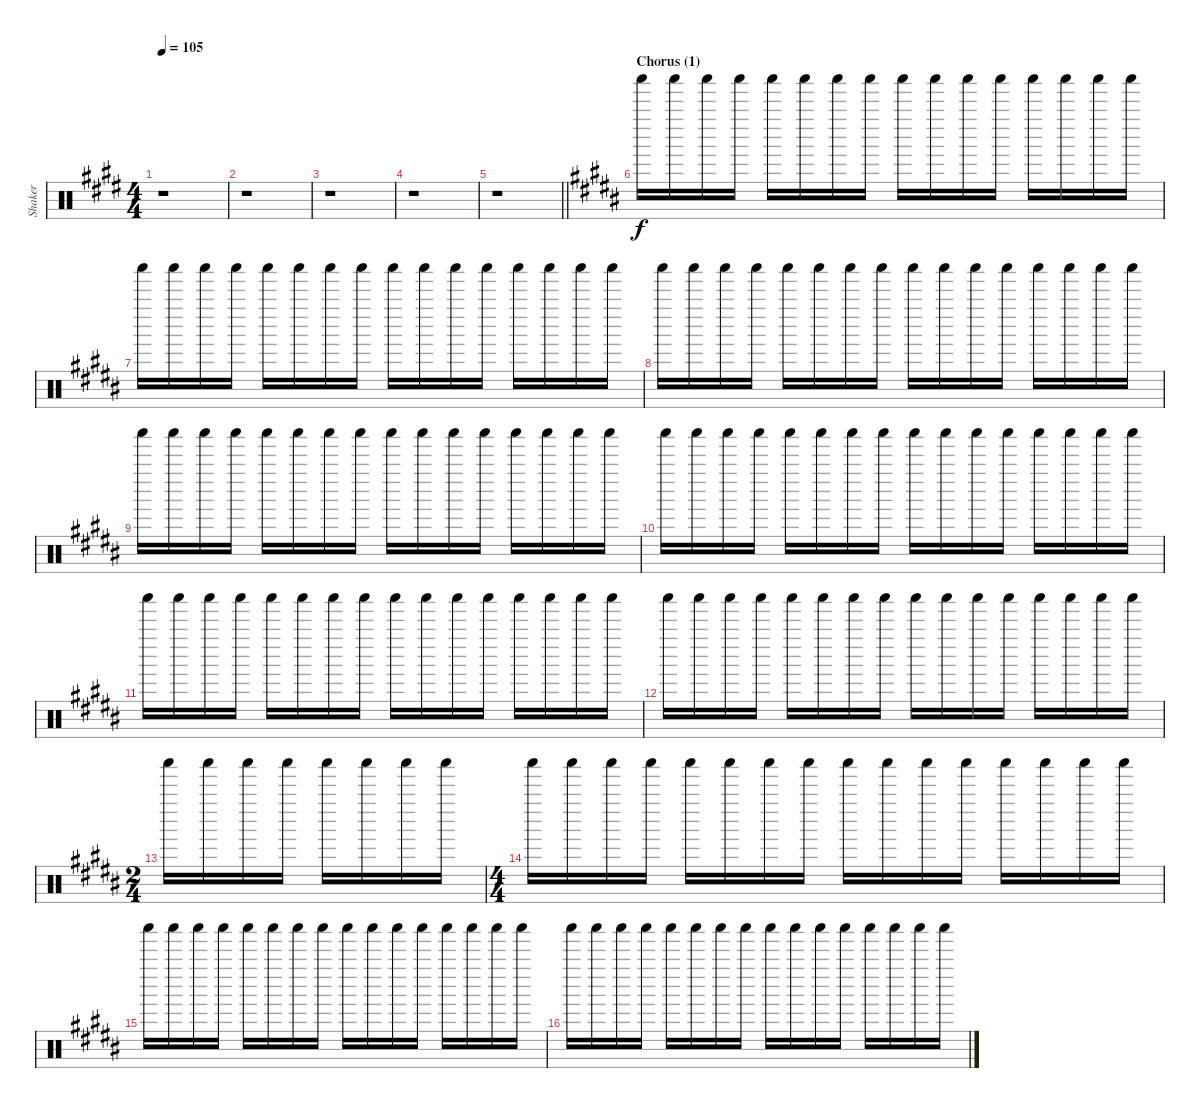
\track ("Shaker" "Shaker") {instrument percussion}
\staff {score}
\articulation defaults
\ts (4 4)
\tempo 105
\clef neutral
\ks e
r.1{dy f} |
r.1 |
r.1 |
r.1 |
\barLineRight lightlight
r.1 |
\section ("" "Chorus (1)")
\ks g#minor "Shaker (hit)".16 "Shaker (hit)".16 "Shaker (hit)".16 "Shaker (hit)".16 "Shaker (hit)".16 "Shaker (hit)".16 "Shaker (hit)".16 "Shaker (hit)".16 "Shaker (hit)".16 "Shaker (hit)".16 "Shaker (hit)".16 "Shaker (hit)".16 "Shaker (hit)".16 "Shaker (hit)".16 "Shaker (hit)".16 "Shaker (hit)".16
|
"Shaker (hit)".16 "Shaker (hit)".16 "Shaker (hit)".16 "Shaker (hit)".16 "Shaker (hit)".16 "Shaker (hit)".16 "Shaker (hit)".16 "Shaker (hit)".16 "Shaker (hit)".16 "Shaker (hit)".16 "Shaker (hit)".16 "Shaker (hit)".16 "Shaker (hit)".16 "Shaker (hit)".16 "Shaker (hit)".16 "Shaker (hit)".16 |
"Shaker (hit)".16 "Shaker (hit)".16 "Shaker (hit)".16 "Shaker (hit)".16 "Shaker (hit)".16 "Shaker (hit)".16 "Shaker (hit)".16 "Shaker (hit)".16 "Shaker (hit)".16 "Shaker (hit)".16 "Shaker (hit)".16 "Shaker (hit)".16 "Shaker (hit)".16 "Shaker (hit)".16 "Shaker (hit)".16 "Shaker (hit)".16 |
"Shaker (hit)".16 "Shaker (hit)".16 "Shaker (hit)".16 "Shaker (hit)".16 "Shaker (hit)".16 "Shaker (hit)".16 "Shaker (hit)".16 "Shaker (hit)".16 "Shaker (hit)".16 "Shaker (hit)".16 "Shaker (hit)".16 "Shaker (hit)".16 "Shaker (hit)".16 "Shaker (hit)".16 "Shaker (hit)".16 "Shaker (hit)".16 |
"Shaker (hit)".16 "Shaker (hit)".16 "Shaker (hit)".16 "Shaker (hit)".16 "Shaker (hit)".16 "Shaker (hit)".16 "Shaker (hit)".16 "Shaker (hit)".16 "Shaker (hit)".16 "Shaker (hit)".16 "Shaker (hit)".16 "Shaker (hit)".16 "Shaker (hit)".16 "Shaker (hit)".16 "Shaker (hit)".16 "Shaker (hit)".16 |
"Shaker (hit)".16 "Shaker (hit)".16 "Shaker (hit)".16 "Shaker (hit)".16 "Shaker (hit)".16 "Shaker (hit)".16 "Shaker (hit)".16 "Shaker (hit)".16 "Shaker (hit)".16 "Shaker (hit)".16 "Shaker (hit)".16 "Shaker (hit)".16 "Shaker (hit)".16 "Shaker (hit)".16 "Shaker (hit)".16 "Shaker (hit)".16 |
"Shaker (hit)".16 "Shaker (hit)".16 "Shaker (hit)".16 "Shaker (hit)".16 "Shaker (hit)".16 "Shaker (hit)".16 "Shaker (hit)".16 "Shaker (hit)".16 "Shaker (hit)".16 "Shaker (hit)".16 "Shaker (hit)".16 "Shaker (hit)".16 "Shaker (hit)".16 "Shaker (hit)".16 "Shaker (hit)".16 "Shaker (hit)".16 |
\ts (2 4)
"Shaker (hit)".16 "Shaker (hit)".16 "Shaker (hit)".16 "Shaker (hit)".16 "Shaker (hit)".16 "Shaker (hit)".16 "Shaker (hit)".16 "Shaker (hit)".16 |
\ts (4 4)
"Shaker (hit)".16 "Shaker (hit)".16 "Shaker (hit)".16 "Shaker (hit)".16 "Shaker (hit)".16 "Shaker (hit)".16 "Shaker (hit)".16 "Shaker (hit)".16 "Shaker (hit)".16 "Shaker (hit)".16 "Shaker (hit)".16 "Shaker (hit)".16 "Shaker (hit)".16 "Shaker (hit)".16 "Shaker (hit)".16 "Shaker (hit)".16 |
"Shaker (hit)".16 "Shaker (hit)".16 "Shaker (hit)".16 "Shaker (hit)".16 "Shaker (hit)".16 "Shaker (hit)".16 "Shaker (hit)".16 "Shaker (hit)".16 "Shaker (hit)".16 "Shaker (hit)".16 "Shaker (hit)".16 "Shaker (hit)".16 "Shaker (hit)".16 "Shaker (hit)".16 "Shaker (hit)".16 "Shaker (hit)".16 |
"Shaker (hit)".16 "Shaker (hit)".16 "Shaker (hit)".16 "Shaker (hit)".16 "Shaker (hit)".16 "Shaker (hit)".16 "Shaker (hit)".16 "Shaker (hit)".16 "Shaker (hit)".16 "Shaker (hit)".16 "Shaker (hit)".16 "Shaker (hit)".16 "Shaker (hit)".16 "Shaker (hit)".16 "Shaker (hit)".16 "Shaker (hit)".16
